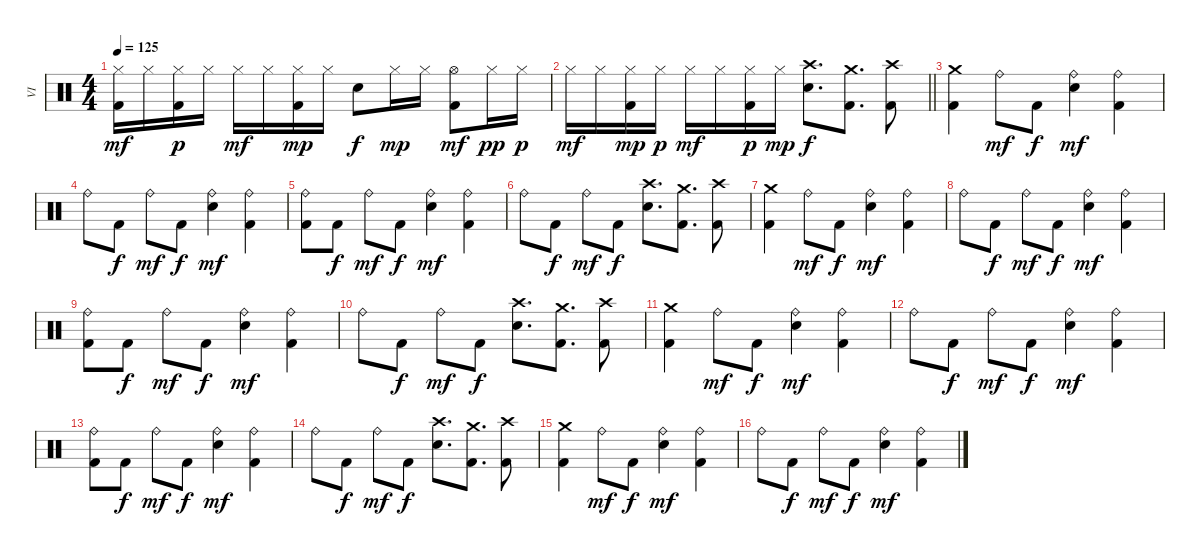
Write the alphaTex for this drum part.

\track ("VI" "VI") {instrument percussion}
\staff {score}
\articulation defaults
\ts (4 4)
\tempo 125
\clef neutral
\ks c
("Hi-Hat (closed)" "Kick (hit) 2").16{dy mf} "Hi-Hat (closed)".16 ("Hi-Hat (closed)" "Kick (hit) 2").16{dy p} "Hi-Hat (closed)".16 "Hi-Hat (closed)".16{dy mf} "Hi-Hat (closed)".16 ("Hi-Hat (closed)" "Kick (hit) 2").16{dy mp} "Hi-Hat (closed)".16 "Electric Snare (hit)".8{dy f} "Hi-Hat (closed)".16{dy mp} "Hi-Hat (closed)".16 ("Hi-Hat (open)" "Kick (hit) 2").8{dy mf} "Hi-Hat (closed)".16{dy pp} "Hi-Hat (closed)".16{dy p} |
\barLineRight lightlight "Hi-Hat (closed)".16{dy mf} "Hi-Hat (closed)".16
("Hi-Hat (closed)" "Kick (hit) 2").16{dy mp} "Hi-Hat (closed)".16{dy p} "Hi-Hat (closed)".16{dy mf} "Hi-Hat (closed)".16 ("Hi-Hat (closed)" "Kick (hit) 2").16{dy p} "Hi-Hat (closed)".16{dy mp} ("Crash high (hit)" "Electric Snare (hit)").8{d dy f} ("Crash medium (hit)" "Kick (hit) 2").8{d} ("Crash high (hit)" "Kick (hit) 2").8 |
\section ("" "")
("Crash medium (hit)" "Kick (hit) 2").4 "Ride (bell)".8{dy mf} "Kick (hit) 2".8{dy f} ("Ride (bell)" "Electric Snare (hit)").4{dy mf} ("Ride (bell)" "Kick (hit) 2").4 |
"Ride (bell)".8 "Kick (hit) 2".8{dy f} "Ride (bell)".8{dy mf} "Kick (hit) 2".8{dy f} ("Ride (bell)" "Electric Snare (hit)").4{dy mf} ("Ride (bell)" "Kick (hit) 2").4 |
("Ride (bell)" "Kick (hit) 2").8 "Kick (hit) 2".8{dy f} "Ride (bell)".8{dy mf} "Kick (hit) 2".8{dy f} ("Ride (bell)" "Electric Snare (hit)").4{dy mf} ("Ride (bell)" "Kick (hit) 2").4 |
"Ride (bell)".8 "Kick (hit) 2".8{dy f} "Ride (bell)".8{dy mf} "Kick (hit) 2".8{dy f} ("Crash high (hit)" "Electric Snare (hit)").8{d} ("Crash medium (hit)" "Kick (hit) 2").8{d} ("Crash high (hit)" "Kick (hit) 2").8 |
("Crash medium (hit)" "Kick (hit) 2").4 "Ride (bell)".8{dy mf} "Kick (hit) 2".8{dy f} ("Ride (bell)" "Electric Snare (hit)").4{dy mf} ("Ride (bell)" "Kick (hit) 2").4 |
"Ride (bell)".8 "Kick (hit) 2".8{dy f} "Ride (bell)".8{dy mf} "Kick (hit) 2".8{dy f} ("Ride (bell)" "Electric Snare (hit)").4{dy mf} ("Ride (bell)" "Kick (hit) 2").4 |
("Ride (bell)" "Kick (hit) 2").8 "Kick (hit) 2".8{dy f} "Ride (bell)".8{dy mf} "Kick (hit) 2".8{dy f} ("Ride (bell)" "Electric Snare (hit)").4{dy mf} ("Ride (bell)" "Kick (hit) 2").4 |
"Ride (bell)".8 "Kick (hit) 2".8{dy f} "Ride (bell)".8{dy mf} "Kick (hit) 2".8{dy f} ("Crash high (hit)" "Electric Snare (hit)").8{d} ("Crash medium (hit)" "Kick (hit) 2").8{d} ("Crash high (hit)" "Kick (hit) 2").8 |
("Crash medium (hit)" "Kick (hit) 2").4 "Ride (bell)".8{dy mf} "Kick (hit) 2".8{dy f} ("Ride (bell)" "Electric Snare (hit)").4{dy mf} ("Ride (bell)" "Kick (hit) 2").4 |
"Ride (bell)".8 "Kick (hit) 2".8{dy f} "Ride (bell)".8{dy mf} "Kick (hit) 2".8{dy f} ("Ride (bell)" "Electric Snare (hit)").4{dy mf} ("Ride (bell)" "Kick (hit) 2").4 |
("Ride (bell)" "Kick (hit) 2").8 "Kick (hit) 2".8{dy f} "Ride (bell)".8{dy mf} "Kick (hit) 2".8{dy f} ("Ride (bell)" "Electric Snare (hit)").4{dy mf} ("Ride (bell)" "Kick (hit) 2").4 |
"Ride (bell)".8 "Kick (hit) 2".8{dy f} "Ride (bell)".8{dy mf} "Kick (hit) 2".8{dy f} ("Crash high (hit)" "Electric Snare (hit)").8{d} ("Crash medium (hit)" "Kick (hit) 2").8{d} ("Crash high (hit)" "Kick (hit) 2").8 |
("Crash medium (hit)" "Kick (hit) 2").4 "Ride (bell)".8{dy mf} "Kick (hit) 2".8{dy f} ("Ride (bell)" "Electric Snare (hit)").4{dy mf} ("Ride (bell)" "Kick (hit) 2").4 |
"Ride (bell)".8 "Kick (hit) 2".8{dy f} "Ride (bell)".8{dy mf} "Kick (hit) 2".8{dy f} ("Ride (bell)" "Electric Snare (hit)").4{dy mf} ("Ride (bell)" "Kick (hit) 2").4
